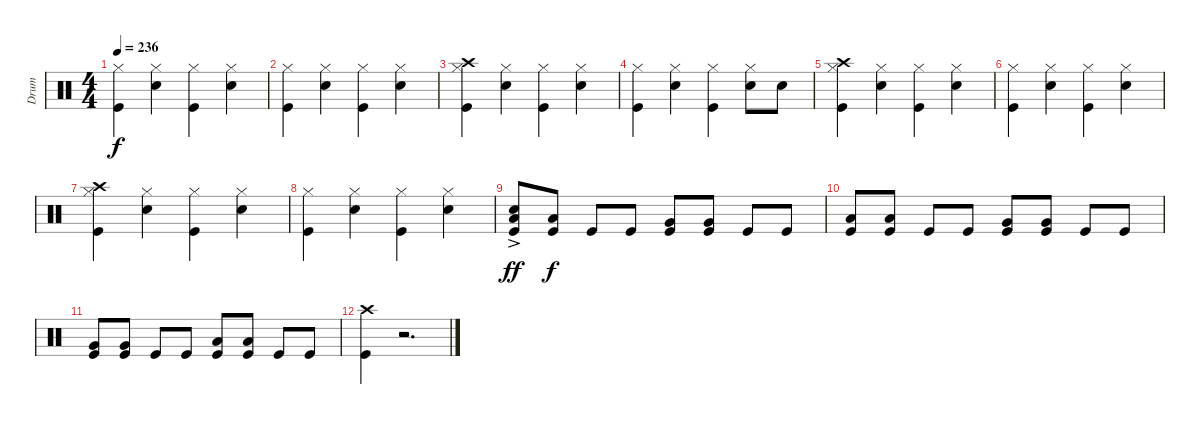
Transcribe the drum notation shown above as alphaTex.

\track ("Drum" "Drum") {instrument percussion}
\staff {score}
\articulation defaults
\ts (4 4)
\tempo 236
\clef neutral
\ks c
("Hi-Hat (closed)" "Kick (hit)").4{dy f} ("Hi-Hat (closed)" "Snare (hit) 2").4 ("Hi-Hat (closed)" "Kick (hit)").4 ("Hi-Hat (closed)" "Snare (hit) 2").4 |
("Hi-Hat (closed)" "Kick (hit)").4 ("Hi-Hat (closed)" "Snare (hit) 2").4 ("Hi-Hat (closed)" "Kick (hit)").4 ("Hi-Hat (closed)" "Snare (hit) 2").4 |
("Crash high (hit)" "Hi-Hat (closed)" "Kick (hit)").4 ("Hi-Hat (closed)" "Snare (hit) 2").4 ("Hi-Hat (closed)" "Kick (hit)").4 ("Hi-Hat (closed)" "Snare (hit) 2").4 |
("Hi-Hat (closed)" "Kick (hit)").4 ("Hi-Hat (closed)" "Snare (hit) 2").4 ("Hi-Hat (closed)" "Kick (hit)").4 ("Hi-Hat (closed)" "Snare (hit) 2").8 "Snare (hit) 2".8 |
("Crash high (hit)" "Hi-Hat (closed)" "Kick (hit)").4 ("Hi-Hat (closed)" "Snare (hit) 2").4 ("Hi-Hat (closed)" "Kick (hit)").4 ("Hi-Hat (closed)" "Snare (hit) 2").4 |
("Hi-Hat (closed)" "Kick (hit)").4 ("Hi-Hat (closed)" "Snare (hit) 2").4 ("Hi-Hat (closed)" "Kick (hit)").4 ("Hi-Hat (closed)" "Snare (hit) 2").4 |
("Crash high (hit)" "Hi-Hat (closed)" "Kick (hit)").4 ("Hi-Hat (closed)" "Snare (hit) 2").4 ("Hi-Hat (closed)" "Kick (hit)").4 ("Hi-Hat (closed)" "Snare (hit) 2").4 |
("Hi-Hat (closed)" "Kick (hit)").4 ("Hi-Hat (closed)" "Snare (hit) 2").4 ("Hi-Hat (closed)" "Kick (hit)").4 ("Hi-Hat (closed)" "Snare (hit) 2").4 |
("Low Tom (hit)" "Snare (hit) 2"{ac} "Kick (hit)").8{dy ff} ("Low Tom (hit)" "Kick (hit)").8{dy f} "Kick (hit)".8 "Kick (hit)".8 ("Very Low Tom (hit)" "Kick (hit)").8 ("Very Low Tom (hit)" "Kick (hit)").8 "Kick (hit)".8 "Kick (hit)".8 |
("Low Tom (hit)" "Kick (hit)").8 ("Low Tom (hit)" "Kick (hit)").8 "Kick (hit)".8 "Kick (hit)".8 ("Very Low Tom (hit)" "Kick (hit)").8 ("Very Low Tom (hit)" "Kick (hit)").8 "Kick (hit)".8 "Kick (hit)".8 |
("Very Low Tom (hit)" "Kick (hit)").8 ("Very Low Tom (hit)" "Kick (hit)").8 "Kick (hit)".8 "Kick (hit)".8 ("Low Floor Tom (hit)" "Kick (hit)").8 ("Low Floor Tom (hit)" "Kick (hit)").8 "Kick (hit)".8 "Kick (hit)".8 |
("Crash high (hit)" "Kick (hit)").4 r.2{d}
